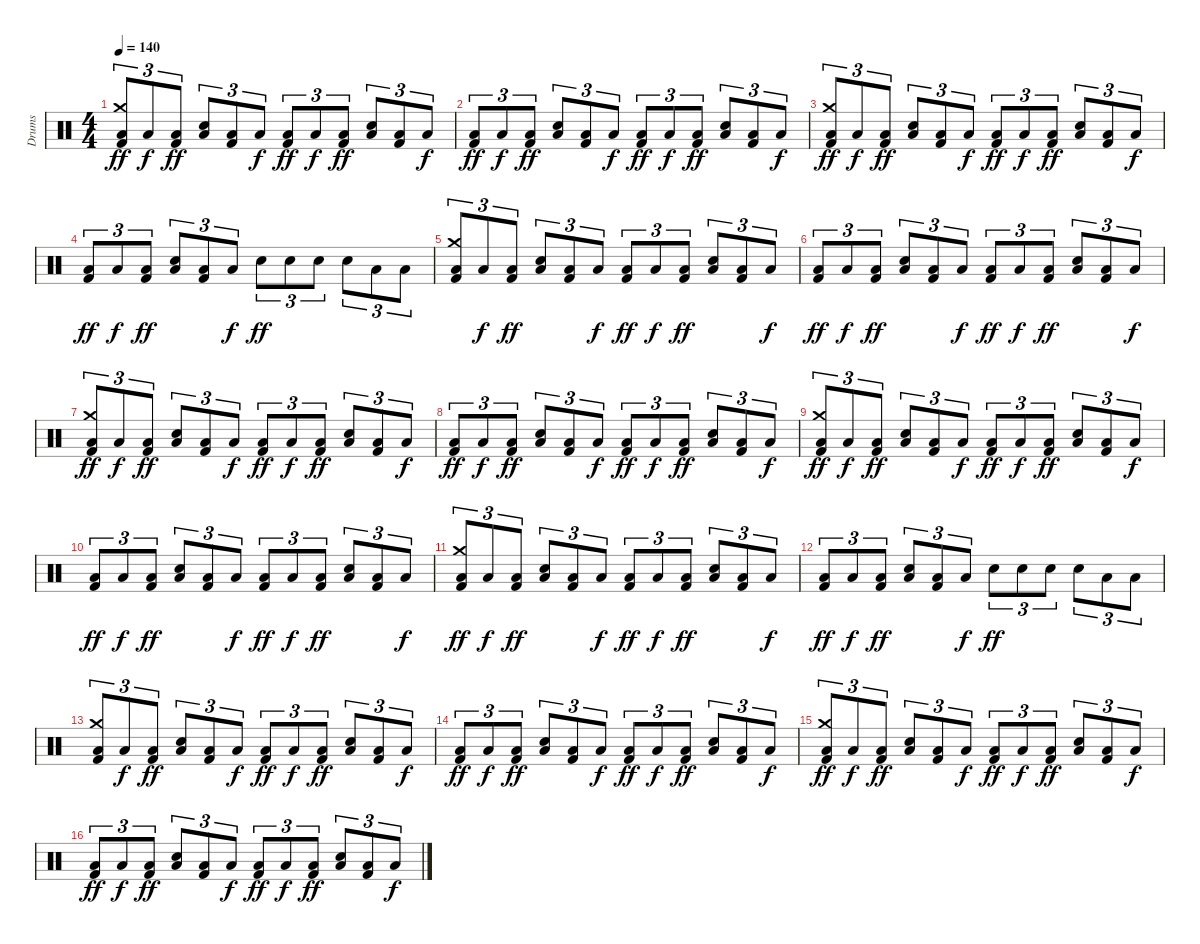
\track ("Drums" "Drums") {instrument percussion}
\staff {score}
\articulation defaults
\ts (4 4)
\tempo 140
\clef neutral
\ks c
("Kick (hit) 2" "Crash medium (hit)" "Low Floor Tom (hit)").8{tu (3 2) dy ff} "Low Floor Tom (hit)".8{tu (3 2) dy f} ("Kick (hit) 2" "Low Floor Tom (hit)").8{tu (3 2) dy ff} ("Snare (hit) 2" "Low Floor Tom (hit)").8{tu (3 2)} ("Kick (hit) 2" "Low Floor Tom (hit)").8{tu (3 2)} "Low Floor Tom (hit)".8{tu (3 2) dy f} ("Kick (hit) 2" "Low Floor Tom (hit)").8{tu (3 2) dy ff} "Low Floor Tom (hit)".8{tu (3 2) dy f} ("Kick (hit) 2" "Low Floor Tom (hit)").8{tu (3 2) dy ff} ("Snare (hit) 2" "Low Floor Tom (hit)").8{tu (3 2)} ("Kick (hit) 2" "Low Floor Tom (hit)").8{tu (3 2)} "Low Floor Tom (hit)".8{tu (3 2) dy f} |
("Kick (hit) 2" "Low Floor Tom (hit)").8{tu (3 2) dy ff} "Low Floor Tom (hit)".8{tu (3 2) dy f} ("Kick (hit) 2" "Low Floor Tom (hit)").8{tu (3 2) dy ff} ("Snare (hit) 2" "Low Floor Tom (hit)").8{tu (3 2)} ("Kick (hit) 2" "Low Floor Tom (hit)").8{tu (3 2)} "Low Floor Tom (hit)".8{tu (3 2) dy f} ("Kick (hit) 2" "Low Floor Tom (hit)").8{tu (3 2) dy ff} "Low Floor Tom (hit)".8{tu (3 2) dy f} ("Kick (hit) 2" "Low Floor Tom (hit)").8{tu (3 2) dy ff} ("Snare (hit) 2" "Low Floor Tom (hit)").8{tu (3 2)} ("Kick (hit) 2" "Low Floor Tom (hit)").8{tu (3 2)} "Low Floor Tom (hit)".8{tu (3 2) dy f} |
("Kick (hit) 2" "Crash medium (hit)" "Low Floor Tom (hit)").8{tu (3 2) dy ff} "Low Floor Tom (hit)".8{tu (3 2) dy f} ("Kick (hit) 2" "Low Floor Tom (hit)").8{tu (3 2) dy ff} ("Snare (hit) 2" "Low Floor Tom (hit)").8{tu (3 2)} ("Kick (hit) 2" "Low Floor Tom (hit)").8{tu (3 2)} "Low Floor Tom (hit)".8{tu (3 2) dy f} ("Kick (hit) 2" "Low Floor Tom (hit)").8{tu (3 2) dy ff} "Low Floor Tom (hit)".8{tu (3 2) dy f} ("Kick (hit) 2" "Low Floor Tom (hit)").8{tu (3 2) dy ff} ("Snare (hit) 2" "Low Floor Tom (hit)").8{tu (3 2)} ("Kick (hit) 2" "Low Floor Tom (hit)").8{tu (3 2)} "Low Floor Tom (hit)".8{tu (3 2) dy f} |
("Kick (hit) 2" "Low Floor Tom (hit)").8{tu (3 2) dy ff} "Low Floor Tom (hit)".8{tu (3 2) dy f} ("Kick (hit) 2" "Low Floor Tom (hit)").8{tu (3 2) dy ff} ("Snare (hit) 2" "Low Floor Tom (hit)").8{tu (3 2)} ("Kick (hit) 2" "Low Floor Tom (hit)").8{tu (3 2)} "Low Floor Tom (hit)".8{tu (3 2) dy f} "Snare (hit) 2".8{tu (3 2) dy ff} "Snare (hit) 2".8{tu (3 2)} "Snare (hit) 2".8{tu (3 2)} "Snare (hit) 2".8{tu (3 2)} "Low Tom (hit)".8{tu (3 2)} "Low Floor Tom (hit)".8{tu (3 2)} |
("Kick (hit) 2" "Crash medium (hit)" "Low Floor Tom (hit)").8{tu (3 2)} "Low Floor Tom (hit)".8{tu (3 2) dy f} ("Kick (hit) 2" "Low Floor Tom (hit)").8{tu (3 2) dy ff} ("Snare (hit) 2" "Low Floor Tom (hit)").8{tu (3 2)} ("Kick (hit) 2" "Low Floor Tom (hit)").8{tu (3 2)} "Low Floor Tom (hit)".8{tu (3 2) dy f} ("Kick (hit) 2" "Low Floor Tom (hit)").8{tu (3 2) dy ff} "Low Floor Tom (hit)".8{tu (3 2) dy f} ("Kick (hit) 2" "Low Floor Tom (hit)").8{tu (3 2) dy ff} ("Snare (hit) 2" "Low Floor Tom (hit)").8{tu (3 2)} ("Kick (hit) 2" "Low Floor Tom (hit)").8{tu (3 2)} "Low Floor Tom (hit)".8{tu (3 2) dy f} |
("Kick (hit) 2" "Low Floor Tom (hit)").8{tu (3 2) dy ff} "Low Floor Tom (hit)".8{tu (3 2) dy f} ("Kick (hit) 2" "Low Floor Tom (hit)").8{tu (3 2) dy ff} ("Snare (hit) 2" "Low Floor Tom (hit)").8{tu (3 2)} ("Kick (hit) 2" "Low Floor Tom (hit)").8{tu (3 2)} "Low Floor Tom (hit)".8{tu (3 2) dy f} ("Kick (hit) 2" "Low Floor Tom (hit)").8{tu (3 2) dy ff} "Low Floor Tom (hit)".8{tu (3 2) dy f} ("Kick (hit) 2" "Low Floor Tom (hit)").8{tu (3 2) dy ff} ("Snare (hit) 2" "Low Floor Tom (hit)").8{tu (3 2)} ("Kick (hit) 2" "Low Floor Tom (hit)").8{tu (3 2)} "Low Floor Tom (hit)".8{tu (3 2) dy f} |
("Kick (hit) 2" "Crash medium (hit)" "Low Floor Tom (hit)").8{tu (3 2) dy ff} "Low Floor Tom (hit)".8{tu (3 2) dy f} ("Kick (hit) 2" "Low Floor Tom (hit)").8{tu (3 2) dy ff} ("Snare (hit) 2" "Low Floor Tom (hit)").8{tu (3 2)} ("Kick (hit) 2" "Low Floor Tom (hit)").8{tu (3 2)} "Low Floor Tom (hit)".8{tu (3 2) dy f} ("Kick (hit) 2" "Low Floor Tom (hit)").8{tu (3 2) dy ff} "Low Floor Tom (hit)".8{tu (3 2) dy f} ("Kick (hit) 2" "Low Floor Tom (hit)").8{tu (3 2) dy ff} ("Snare (hit) 2" "Low Floor Tom (hit)").8{tu (3 2)} ("Kick (hit) 2" "Low Floor Tom (hit)").8{tu (3 2)} "Low Floor Tom (hit)".8{tu (3 2) dy f} |
("Kick (hit) 2" "Low Floor Tom (hit)").8{tu (3 2) dy ff} "Low Floor Tom (hit)".8{tu (3 2) dy f} ("Kick (hit) 2" "Low Floor Tom (hit)").8{tu (3 2) dy ff} ("Snare (hit) 2" "Low Floor Tom (hit)").8{tu (3 2)} ("Kick (hit) 2" "Low Floor Tom (hit)").8{tu (3 2)} "Low Floor Tom (hit)".8{tu (3 2) dy f} ("Kick (hit) 2" "Low Floor Tom (hit)").8{tu (3 2) dy ff} "Low Floor Tom (hit)".8{tu (3 2) dy f} ("Kick (hit) 2" "Low Floor Tom (hit)").8{tu (3 2) dy ff} ("Snare (hit) 2" "Low Floor Tom (hit)").8{tu (3 2)} ("Kick (hit) 2" "Low Floor Tom (hit)").8{tu (3 2)} "Low Floor Tom (hit)".8{tu (3 2) dy f} |
("Kick (hit) 2" "Crash medium (hit)" "Low Floor Tom (hit)").8{tu (3 2) dy ff volume 13} "Low Floor Tom (hit)".8{tu (3 2) dy f} ("Kick (hit) 2" "Low Floor Tom (hit)").8{tu (3 2) dy ff volume 12} ("Snare (hit) 2" "Low Floor Tom (hit)").8{tu (3 2)} ("Kick (hit) 2" "Low Floor Tom (hit)").8{tu (3 2)} "Low Floor Tom (hit)".8{tu (3 2) dy f} ("Kick (hit) 2" "Low Floor Tom (hit)").8{tu (3 2) dy ff} "Low Floor Tom (hit)".8{tu (3 2) dy f} ("Kick (hit) 2" "Low Floor Tom (hit)").8{tu (3 2) dy ff} ("Snare (hit) 2" "Low Floor Tom (hit)").8{tu (3 2)} ("Kick (hit) 2" "Low Floor Tom (hit)").8{tu (3 2)} "Low Floor Tom (hit)".8{tu (3 2) dy f} |
("Kick (hit) 2" "Low Floor Tom (hit)").8{tu (3 2) dy ff} "Low Floor Tom (hit)".8{tu (3 2) dy f} ("Kick (hit) 2" "Low Floor Tom (hit)").8{tu (3 2) dy ff volume 11} ("Snare (hit) 2" "Low Floor Tom (hit)").8{tu (3 2)} ("Kick (hit) 2" "Low Floor Tom (hit)").8{tu (3 2)} "Low Floor Tom (hit)".8{tu (3 2) dy f} ("Kick (hit) 2" "Low Floor Tom (hit)").8{tu (3 2) dy ff} "Low Floor Tom (hit)".8{tu (3 2) dy f} ("Kick (hit) 2" "Low Floor Tom (hit)").8{tu (3 2) dy ff} ("Snare (hit) 2" "Low Floor Tom (hit)").8{tu (3 2)} ("Kick (hit) 2" "Low Floor Tom (hit)").8{tu (3 2)} "Low Floor Tom (hit)".8{tu (3 2) dy f} |
("Kick (hit) 2" "Crash medium (hit)" "Low Floor Tom (hit)").8{tu (3 2) dy ff volume 10} "Low Floor Tom (hit)".8{tu (3 2) dy f} ("Kick (hit) 2" "Low Floor Tom (hit)").8{tu (3 2) dy ff} ("Snare (hit) 2" "Low Floor Tom (hit)").8{tu (3 2)} ("Kick (hit) 2" "Low Floor Tom (hit)").8{tu (3 2)} "Low Floor Tom (hit)".8{tu (3 2) dy f} ("Kick (hit) 2" "Low Floor Tom (hit)").8{tu (3 2) dy ff} "Low Floor Tom (hit)".8{tu (3 2) dy f} ("Kick (hit) 2" "Low Floor Tom (hit)").8{tu (3 2) dy ff} ("Snare (hit) 2" "Low Floor Tom (hit)").8{tu (3 2)} ("Kick (hit) 2" "Low Floor Tom (hit)").8{tu (3 2)} "Low Floor Tom (hit)".8{tu (3 2) dy f} |
("Kick (hit) 2" "Low Floor Tom (hit)").8{tu (3 2) dy ff} "Low Floor Tom (hit)".8{tu (3 2) dy f} ("Kick (hit) 2" "Low Floor Tom (hit)").8{tu (3 2) dy ff volume 9} ("Snare (hit) 2" "Low Floor Tom (hit)").8{tu (3 2)} ("Kick (hit) 2" "Low Floor Tom (hit)").8{tu (3 2)} "Low Floor Tom (hit)".8{tu (3 2) dy f} "Snare (hit) 2".8{tu (3 2) dy ff} "Snare (hit) 2".8{tu (3 2)} "Snare (hit) 2".8{tu (3 2)} "Snare (hit) 2".8{tu (3 2)} "Low Tom (hit)".8{tu (3 2)} "Low Floor Tom (hit)".8{tu (3 2) volume 8} |
("Kick (hit) 2" "Crash medium (hit)" "Low Floor Tom (hit)").8{tu (3 2)} "Low Floor Tom (hit)".8{tu (3 2) dy f} ("Kick (hit) 2" "Low Floor Tom (hit)").8{tu (3 2) dy ff} ("Snare (hit) 2" "Low Floor Tom (hit)").8{tu (3 2)} ("Kick (hit) 2" "Low Floor Tom (hit)").8{tu (3 2)} "Low Floor Tom (hit)".8{tu (3 2) dy f} ("Kick (hit) 2" "Low Floor Tom (hit)").8{tu (3 2) dy ff} "Low Floor Tom (hit)".8{tu (3 2) dy f} ("Kick (hit) 2" "Low Floor Tom (hit)").8{tu (3 2) dy ff} ("Snare (hit) 2" "Low Floor Tom (hit)").8{tu (3 2)} ("Kick (hit) 2" "Low Floor Tom (hit)").8{tu (3 2)} "Low Floor Tom (hit)".8{tu (3 2) dy f} |
("Kick (hit) 2" "Low Floor Tom (hit)").8{tu (3 2) dy ff volume 7} "Low Floor Tom (hit)".8{tu (3 2) dy f} ("Kick (hit) 2" "Low Floor Tom (hit)").8{tu (3 2) dy ff} ("Snare (hit) 2" "Low Floor Tom (hit)").8{tu (3 2)} ("Kick (hit) 2" "Low Floor Tom (hit)").8{tu (3 2)} "Low Floor Tom (hit)".8{tu (3 2) dy f} ("Kick (hit) 2" "Low Floor Tom (hit)").8{tu (3 2) dy ff} "Low Floor Tom (hit)".8{tu (3 2) dy f} ("Kick (hit) 2" "Low Floor Tom (hit)").8{tu (3 2) dy ff} ("Snare (hit) 2" "Low Floor Tom (hit)").8{tu (3 2) volume 6} ("Kick (hit) 2" "Low Floor Tom (hit)").8{tu (3 2)} "Low Floor Tom (hit)".8{tu (3 2) dy f} |
("Kick (hit) 2" "Crash medium (hit)" "Low Floor Tom (hit)").8{tu (3 2) dy ff} "Low Floor Tom (hit)".8{tu (3 2) dy f} ("Kick (hit) 2" "Low Floor Tom (hit)").8{tu (3 2) dy ff} ("Snare (hit) 2" "Low Floor Tom (hit)").8{tu (3 2)} ("Kick (hit) 2" "Low Floor Tom (hit)").8{tu (3 2)} "Low Floor Tom (hit)".8{tu (3 2) dy f} ("Kick (hit) 2" "Low Floor Tom (hit)").8{tu (3 2) dy ff} "Low Floor Tom (hit)".8{tu (3 2) dy f} ("Kick (hit) 2" "Low Floor Tom (hit)").8{tu (3 2) dy ff} ("Snare (hit) 2" "Low Floor Tom (hit)").8{tu (3 2)} ("Kick (hit) 2" "Low Floor Tom (hit)").8{tu (3 2) volume 5} "Low Floor Tom (hit)".8{tu (3 2) dy f} |
("Kick (hit) 2" "Low Floor Tom (hit)").8{tu (3 2) dy ff} "Low Floor Tom (hit)".8{tu (3 2) dy f} ("Kick (hit) 2" "Low Floor Tom (hit)").8{tu (3 2) dy ff} ("Snare (hit) 2" "Low Floor Tom (hit)").8{tu (3 2)} ("Kick (hit) 2" "Low Floor Tom (hit)").8{tu (3 2)} "Low Floor Tom (hit)".8{tu (3 2) dy f} ("Kick (hit) 2" "Low Floor Tom (hit)").8{tu (3 2) dy ff} "Low Floor Tom (hit)".8{tu (3 2) dy f} ("Kick (hit) 2" "Low Floor Tom (hit)").8{tu (3 2) dy ff volume 4} ("Snare (hit) 2" "Low Floor Tom (hit)").8{tu (3 2)} ("Kick (hit) 2" "Low Floor Tom (hit)").8{tu (3 2)} "Low Floor Tom (hit)".8{tu (3 2) dy f}
